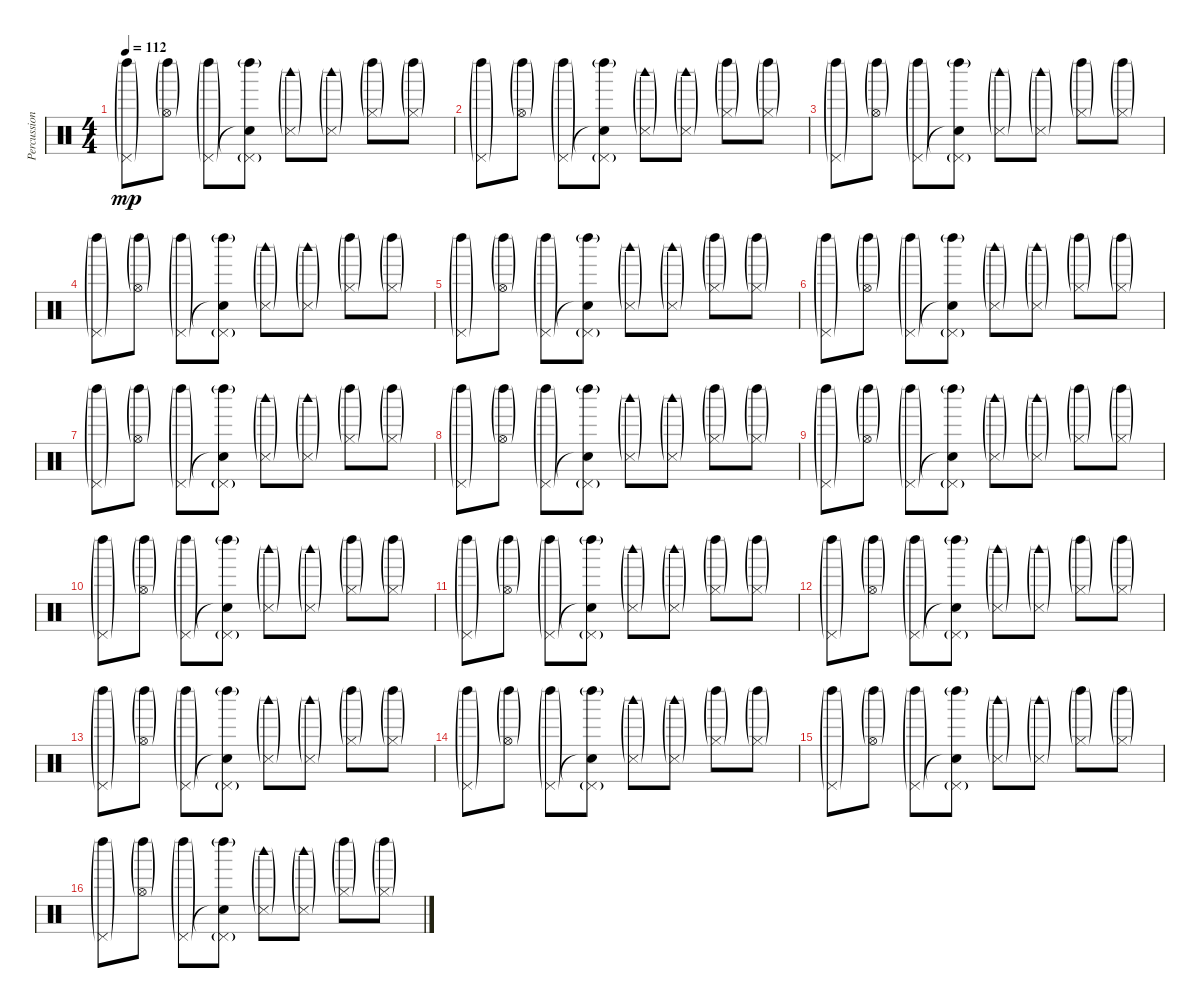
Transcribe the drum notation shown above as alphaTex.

\track ("Percussion" "Percussion") {instrument percussion}
\staff {score}
\articulation defaults
\ts (4 4)
\tempo 112
\clef neutral
\ks c
("Left Maraca (hit)"{g} "Pedal Hi-Hat (hit)"{g}).8{dy mp} ("Left Maraca (hit)"{g} "Hi-Hat (open)"{g}).8 ("Left Maraca (hit)"{g} "Pedal Hi-Hat (hit)"{g}).8 ("Left Maraca (hit)"{g} "Snare (hit)"{t} "Pedal Hi-Hat (hit)"{g}).8 ("Snare (side stick) 3"{g} "Woodblock high (hit)"{g}).8 ("Snare (side stick) 3"{g} "Woodblock high (hit)"{g}).8 ("Left Maraca (hit)"{g} "Hi-Hat (closed)"{g}).8 ("Left Maraca (hit)"{g} "Hi-Hat (closed)"{g}).8 |
("Left Maraca (hit)"{g} "Pedal Hi-Hat (hit)"{g}).8 ("Left Maraca (hit)"{g} "Hi-Hat (open)"{g}).8 ("Left Maraca (hit)"{g} "Pedal Hi-Hat (hit)"{g}).8 ("Left Maraca (hit)"{g} "Snare (hit)"{t} "Pedal Hi-Hat (hit)"{g}).8 ("Snare (side stick) 3"{g} "Woodblock high (hit)"{g}).8 ("Snare (side stick) 3"{g} "Woodblock high (hit)"{g}).8 ("Left Maraca (hit)"{g} "Hi-Hat (closed)"{g}).8 ("Left Maraca (hit)"{g} "Hi-Hat (closed)"{g}).8 |
("Left Maraca (hit)"{g} "Pedal Hi-Hat (hit)"{g}).8 ("Left Maraca (hit)"{g} "Hi-Hat (open)"{g}).8 ("Left Maraca (hit)"{g} "Pedal Hi-Hat (hit)"{g}).8 ("Left Maraca (hit)"{g} "Snare (hit)"{t} "Pedal Hi-Hat (hit)"{g}).8 ("Snare (side stick) 3"{g} "Woodblock high (hit)"{g}).8 ("Snare (side stick) 3"{g} "Woodblock high (hit)"{g}).8 ("Left Maraca (hit)"{g} "Hi-Hat (closed)"{g}).8 ("Left Maraca (hit)"{g} "Hi-Hat (closed)"{g}).8 |
("Left Maraca (hit)"{g} "Pedal Hi-Hat (hit)"{g}).8 ("Left Maraca (hit)"{g} "Hi-Hat (open)"{g}).8 ("Left Maraca (hit)"{g} "Pedal Hi-Hat (hit)"{g}).8 ("Left Maraca (hit)"{g} "Snare (hit)"{t} "Pedal Hi-Hat (hit)"{g}).8 ("Snare (side stick) 3"{g} "Woodblock high (hit)"{g}).8 ("Snare (side stick) 3"{g} "Woodblock high (hit)"{g}).8 ("Left Maraca (hit)"{g} "Hi-Hat (closed)"{g}).8 ("Left Maraca (hit)"{g} "Hi-Hat (closed)"{g}).8 |
("Left Maraca (hit)"{g} "Pedal Hi-Hat (hit)"{g}).8 ("Left Maraca (hit)"{g} "Hi-Hat (open)"{g}).8 ("Left Maraca (hit)"{g} "Pedal Hi-Hat (hit)"{g}).8 ("Left Maraca (hit)"{g} "Snare (hit)"{t} "Pedal Hi-Hat (hit)"{g}).8 ("Snare (side stick) 3"{g} "Woodblock high (hit)"{g}).8 ("Snare (side stick) 3"{g} "Woodblock high (hit)"{g}).8 ("Left Maraca (hit)"{g} "Hi-Hat (closed)"{g}).8 ("Left Maraca (hit)"{g} "Hi-Hat (closed)"{g}).8 |
("Left Maraca (hit)"{g} "Pedal Hi-Hat (hit)"{g}).8 ("Left Maraca (hit)"{g} "Hi-Hat (open)"{g}).8 ("Left Maraca (hit)"{g} "Pedal Hi-Hat (hit)"{g}).8 ("Left Maraca (hit)"{g} "Snare (hit)"{t} "Pedal Hi-Hat (hit)"{g}).8 ("Snare (side stick) 3"{g} "Woodblock high (hit)"{g}).8 ("Snare (side stick) 3"{g} "Woodblock high (hit)"{g}).8 ("Left Maraca (hit)"{g} "Hi-Hat (closed)"{g}).8 ("Left Maraca (hit)"{g} "Hi-Hat (closed)"{g}).8 |
("Left Maraca (hit)"{g} "Pedal Hi-Hat (hit)"{g}).8 ("Left Maraca (hit)"{g} "Hi-Hat (open)"{g}).8 ("Left Maraca (hit)"{g} "Pedal Hi-Hat (hit)"{g}).8 ("Left Maraca (hit)"{g} "Snare (hit)"{t} "Pedal Hi-Hat (hit)"{g}).8 ("Snare (side stick) 3"{g} "Woodblock high (hit)"{g}).8 ("Snare (side stick) 3"{g} "Woodblock high (hit)"{g}).8 ("Left Maraca (hit)"{g} "Hi-Hat (closed)"{g}).8 ("Left Maraca (hit)"{g} "Hi-Hat (closed)"{g}).8 |
("Left Maraca (hit)"{g} "Pedal Hi-Hat (hit)"{g}).8 ("Left Maraca (hit)"{g} "Hi-Hat (open)"{g}).8 ("Left Maraca (hit)"{g} "Pedal Hi-Hat (hit)"{g}).8 ("Left Maraca (hit)"{g} "Snare (hit)"{t} "Pedal Hi-Hat (hit)"{g}).8 ("Snare (side stick) 3"{g} "Woodblock high (hit)"{g}).8 ("Snare (side stick) 3"{g} "Woodblock high (hit)"{g}).8 ("Left Maraca (hit)"{g} "Hi-Hat (closed)"{g}).8 ("Left Maraca (hit)"{g} "Hi-Hat (closed)"{g}).8 |
("Left Maraca (hit)"{g} "Pedal Hi-Hat (hit)"{g}).8 ("Left Maraca (hit)"{g} "Hi-Hat (open)"{g}).8 ("Left Maraca (hit)"{g} "Pedal Hi-Hat (hit)"{g}).8 ("Left Maraca (hit)"{g} "Snare (hit)"{t} "Pedal Hi-Hat (hit)"{g}).8 ("Snare (side stick) 3"{g} "Woodblock high (hit)"{g}).8 ("Snare (side stick) 3"{g} "Woodblock high (hit)"{g}).8 ("Left Maraca (hit)"{g} "Hi-Hat (closed)"{g}).8 ("Left Maraca (hit)"{g} "Hi-Hat (closed)"{g}).8 |
("Left Maraca (hit)"{g} "Pedal Hi-Hat (hit)"{g}).8 ("Left Maraca (hit)"{g} "Hi-Hat (open)"{g}).8 ("Left Maraca (hit)"{g} "Pedal Hi-Hat (hit)"{g}).8 ("Left Maraca (hit)"{g} "Snare (hit)"{t} "Pedal Hi-Hat (hit)"{g}).8 ("Snare (side stick) 3"{g} "Woodblock high (hit)"{g}).8 ("Snare (side stick) 3"{g} "Woodblock high (hit)"{g}).8 ("Left Maraca (hit)"{g} "Hi-Hat (closed)"{g}).8 ("Left Maraca (hit)"{g} "Hi-Hat (closed)"{g}).8 |
("Left Maraca (hit)"{g} "Pedal Hi-Hat (hit)"{g}).8 ("Left Maraca (hit)"{g} "Hi-Hat (open)"{g}).8 ("Left Maraca (hit)"{g} "Pedal Hi-Hat (hit)"{g}).8 ("Left Maraca (hit)"{g} "Snare (hit)"{t} "Pedal Hi-Hat (hit)"{g}).8 ("Snare (side stick) 3"{g} "Woodblock high (hit)"{g}).8 ("Snare (side stick) 3"{g} "Woodblock high (hit)"{g}).8 ("Left Maraca (hit)"{g} "Hi-Hat (closed)"{g}).8 ("Left Maraca (hit)"{g} "Hi-Hat (closed)"{g}).8 |
("Left Maraca (hit)"{g} "Pedal Hi-Hat (hit)"{g}).8 ("Left Maraca (hit)"{g} "Hi-Hat (open)"{g}).8 ("Left Maraca (hit)"{g} "Pedal Hi-Hat (hit)"{g}).8 ("Left Maraca (hit)"{g} "Snare (hit)"{t} "Pedal Hi-Hat (hit)"{g}).8 ("Snare (side stick) 3"{g} "Woodblock high (hit)"{g}).8 ("Snare (side stick) 3"{g} "Woodblock high (hit)"{g}).8 ("Left Maraca (hit)"{g} "Hi-Hat (closed)"{g}).8 ("Left Maraca (hit)"{g} "Hi-Hat (closed)"{g}).8 |
("Left Maraca (hit)"{g} "Pedal Hi-Hat (hit)"{g}).8 ("Left Maraca (hit)"{g} "Hi-Hat (open)"{g}).8 ("Left Maraca (hit)"{g} "Pedal Hi-Hat (hit)"{g}).8 ("Left Maraca (hit)"{g} "Snare (hit)"{t} "Pedal Hi-Hat (hit)"{g}).8 ("Snare (side stick) 3"{g} "Woodblock high (hit)"{g}).8 ("Snare (side stick) 3"{g} "Woodblock high (hit)"{g}).8 ("Left Maraca (hit)"{g} "Hi-Hat (closed)"{g}).8 ("Left Maraca (hit)"{g} "Hi-Hat (closed)"{g}).8 |
("Left Maraca (hit)"{g} "Pedal Hi-Hat (hit)"{g}).8 ("Left Maraca (hit)"{g} "Hi-Hat (open)"{g}).8 ("Left Maraca (hit)"{g} "Pedal Hi-Hat (hit)"{g}).8 ("Left Maraca (hit)"{g} "Snare (hit)"{t} "Pedal Hi-Hat (hit)"{g}).8 ("Snare (side stick) 3"{g} "Woodblock high (hit)"{g}).8 ("Snare (side stick) 3"{g} "Woodblock high (hit)"{g}).8 ("Left Maraca (hit)"{g} "Hi-Hat (closed)"{g}).8 ("Left Maraca (hit)"{g} "Hi-Hat (closed)"{g}).8 |
("Left Maraca (hit)"{g} "Pedal Hi-Hat (hit)"{g}).8 ("Left Maraca (hit)"{g} "Hi-Hat (open)"{g}).8 ("Left Maraca (hit)"{g} "Pedal Hi-Hat (hit)"{g}).8 ("Left Maraca (hit)"{g} "Snare (hit)"{t} "Pedal Hi-Hat (hit)"{g}).8 ("Snare (side stick) 3"{g} "Woodblock high (hit)"{g}).8 ("Snare (side stick) 3"{g} "Woodblock high (hit)"{g}).8 ("Left Maraca (hit)"{g} "Hi-Hat (closed)"{g}).8 ("Left Maraca (hit)"{g} "Hi-Hat (closed)"{g}).8 |
("Left Maraca (hit)"{g} "Pedal Hi-Hat (hit)"{g}).8 ("Left Maraca (hit)"{g} "Hi-Hat (open)"{g}).8 ("Left Maraca (hit)"{g} "Pedal Hi-Hat (hit)"{g}).8 ("Left Maraca (hit)"{g} "Snare (hit)"{t} "Pedal Hi-Hat (hit)"{g}).8 ("Snare (side stick) 3"{g} "Woodblock high (hit)"{g}).8 ("Snare (side stick) 3"{g} "Woodblock high (hit)"{g}).8 ("Left Maraca (hit)"{g} "Hi-Hat (closed)"{g}).8 ("Left Maraca (hit)"{g} "Hi-Hat (closed)"{g}).8
